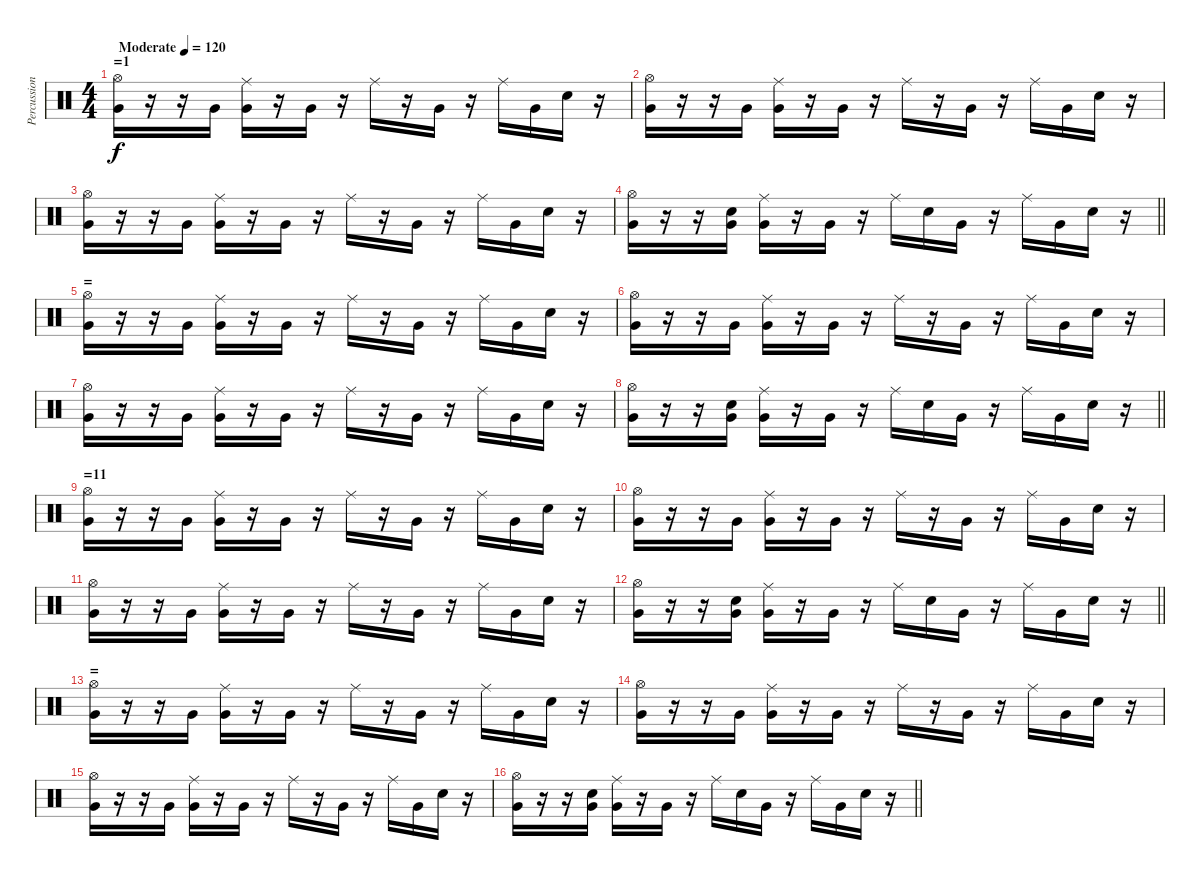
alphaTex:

\track ("Percussion" "Percussion") {instrument percussion}
\staff {score}
\articulation defaults
\ts (4 4)
\section ("" "=1")
\tempo (120 "Moderate")
\clef neutral
\ks c
("Very Low Tom (hit)" "Hi-Hat (open)").16{dy f} r.16 r.16 "Very Low Tom (hit)".16 ("Very Low Tom (hit)" "Ride (middle)").16 r.16 "Very Low Tom (hit)".16 r.16 "Ride (middle)".16 r.16 "Very Low Tom (hit)".16 r.16 "Ride (middle)".16 "Very Low Tom (hit)".16 "Electric Snare (hit)".16 r.16 |
("Very Low Tom (hit)" "Hi-Hat (open)").16 r.16 r.16 "Very Low Tom (hit)".16 ("Very Low Tom (hit)" "Ride (middle)").16 r.16 "Very Low Tom (hit)".16 r.16 "Ride (middle)".16 r.16 "Very Low Tom (hit)".16 r.16 "Ride (middle)".16 "Very Low Tom (hit)".16 "Electric Snare (hit)".16 r.16 |
("Very Low Tom (hit)" "Hi-Hat (open)").16 r.16 r.16 "Very Low Tom (hit)".16 ("Very Low Tom (hit)" "Ride (middle)").16 r.16 "Very Low Tom (hit)".16 r.16 "Ride (middle)".16 r.16 "Very Low Tom (hit)".16 r.16 "Ride (middle)".16 "Very Low Tom (hit)".16 "Electric Snare (hit)".16 r.16 |
\barLineRight lightlight
("Very Low Tom (hit)" "Hi-Hat (open)").16 r.16 r.16 ("Very Low Tom (hit)" "Electric Snare (hit)").16 ("Very Low Tom (hit)" "Ride (middle)").16 r.16 "Very Low Tom (hit)".16 r.16 "Ride (middle)".16 "Electric Snare (hit)".16 "Very Low Tom (hit)".16 r.16 "Ride (middle)".16 "Very Low Tom (hit)".16 "Electric Snare (hit)".16 r.16 |
\section ("" "=")
("Very Low Tom (hit)" "Hi-Hat (open)").16 r.16 r.16 "Very Low Tom (hit)".16 ("Very Low Tom (hit)" "Ride (middle)").16 r.16 "Very Low Tom (hit)".16 r.16 "Ride (middle)".16 r.16 "Very Low Tom (hit)".16 r.16 "Ride (middle)".16 "Very Low Tom (hit)".16 "Electric Snare (hit)".16 r.16 |
("Very Low Tom (hit)" "Hi-Hat (open)").16 r.16 r.16 "Very Low Tom (hit)".16 ("Very Low Tom (hit)" "Ride (middle)").16 r.16 "Very Low Tom (hit)".16 r.16 "Ride (middle)".16 r.16 "Very Low Tom (hit)".16 r.16 "Ride (middle)".16 "Very Low Tom (hit)".16 "Electric Snare (hit)".16 r.16 |
("Very Low Tom (hit)" "Hi-Hat (open)").16 r.16 r.16 "Very Low Tom (hit)".16 ("Very Low Tom (hit)" "Ride (middle)").16 r.16 "Very Low Tom (hit)".16 r.16 "Ride (middle)".16 r.16 "Very Low Tom (hit)".16 r.16 "Ride (middle)".16 "Very Low Tom (hit)".16 "Electric Snare (hit)".16 r.16 |
\barLineRight lightlight
("Very Low Tom (hit)" "Hi-Hat (open)").16 r.16 r.16 ("Very Low Tom (hit)" "Electric Snare (hit)").16 ("Very Low Tom (hit)" "Ride (middle)").16 r.16 "Very Low Tom (hit)".16 r.16 "Ride (middle)".16 "Electric Snare (hit)".16 "Very Low Tom (hit)".16 r.16 "Ride (middle)".16 "Very Low Tom (hit)".16 "Electric Snare (hit)".16 r.16 |
\section ("" "=11")
("Very Low Tom (hit)" "Hi-Hat (open)").16 r.16 r.16 "Very Low Tom (hit)".16 ("Very Low Tom (hit)" "Ride (middle)").16 r.16 "Very Low Tom (hit)".16 r.16 "Ride (middle)".16 r.16 "Very Low Tom (hit)".16 r.16 "Ride (middle)".16 "Very Low Tom (hit)".16 "Electric Snare (hit)".16 r.16 |
("Very Low Tom (hit)" "Hi-Hat (open)").16 r.16 r.16 "Very Low Tom (hit)".16 ("Very Low Tom (hit)" "Ride (middle)").16 r.16 "Very Low Tom (hit)".16 r.16 "Ride (middle)".16 r.16 "Very Low Tom (hit)".16 r.16 "Ride (middle)".16 "Very Low Tom (hit)".16 "Electric Snare (hit)".16 r.16 |
("Very Low Tom (hit)" "Hi-Hat (open)").16 r.16 r.16 "Very Low Tom (hit)".16 ("Very Low Tom (hit)" "Ride (middle)").16 r.16 "Very Low Tom (hit)".16 r.16 "Ride (middle)".16 r.16 "Very Low Tom (hit)".16 r.16 "Ride (middle)".16 "Very Low Tom (hit)".16 "Electric Snare (hit)".16 r.16 |
\barLineRight lightlight
("Very Low Tom (hit)" "Hi-Hat (open)").16 r.16 r.16 ("Very Low Tom (hit)" "Electric Snare (hit)").16 ("Very Low Tom (hit)" "Ride (middle)").16 r.16 "Very Low Tom (hit)".16 r.16 "Ride (middle)".16 "Electric Snare (hit)".16 "Very Low Tom (hit)".16 r.16 "Ride (middle)".16 "Very Low Tom (hit)".16 "Electric Snare (hit)".16 r.16 |
\section ("" "=")
("Very Low Tom (hit)" "Hi-Hat (open)").16 r.16 r.16 "Very Low Tom (hit)".16 ("Very Low Tom (hit)" "Ride (middle)").16 r.16 "Very Low Tom (hit)".16 r.16 "Ride (middle)".16 r.16 "Very Low Tom (hit)".16 r.16 "Ride (middle)".16 "Very Low Tom (hit)".16 "Electric Snare (hit)".16 r.16 |
("Very Low Tom (hit)" "Hi-Hat (open)").16 r.16 r.16 "Very Low Tom (hit)".16 ("Very Low Tom (hit)" "Ride (middle)").16 r.16 "Very Low Tom (hit)".16 r.16 "Ride (middle)".16 r.16 "Very Low Tom (hit)".16 r.16 "Ride (middle)".16 "Very Low Tom (hit)".16 "Electric Snare (hit)".16 r.16 |
("Very Low Tom (hit)" "Hi-Hat (open)").16 r.16 r.16 "Very Low Tom (hit)".16 ("Very Low Tom (hit)" "Ride (middle)").16 r.16 "Very Low Tom (hit)".16 r.16 "Ride (middle)".16 r.16 "Very Low Tom (hit)".16 r.16 "Ride (middle)".16 "Very Low Tom (hit)".16 "Electric Snare (hit)".16 r.16 |
\barLineRight lightlight
("Very Low Tom (hit)" "Hi-Hat (open)").16 r.16 r.16 ("Very Low Tom (hit)" "Electric Snare (hit)").16 ("Very Low Tom (hit)" "Ride (middle)").16 r.16 "Very Low Tom (hit)".16 r.16 "Ride (middle)".16 "Electric Snare (hit)".16 "Very Low Tom (hit)".16 r.16 "Ride (middle)".16 "Very Low Tom (hit)".16 "Electric Snare (hit)".16 r.16
